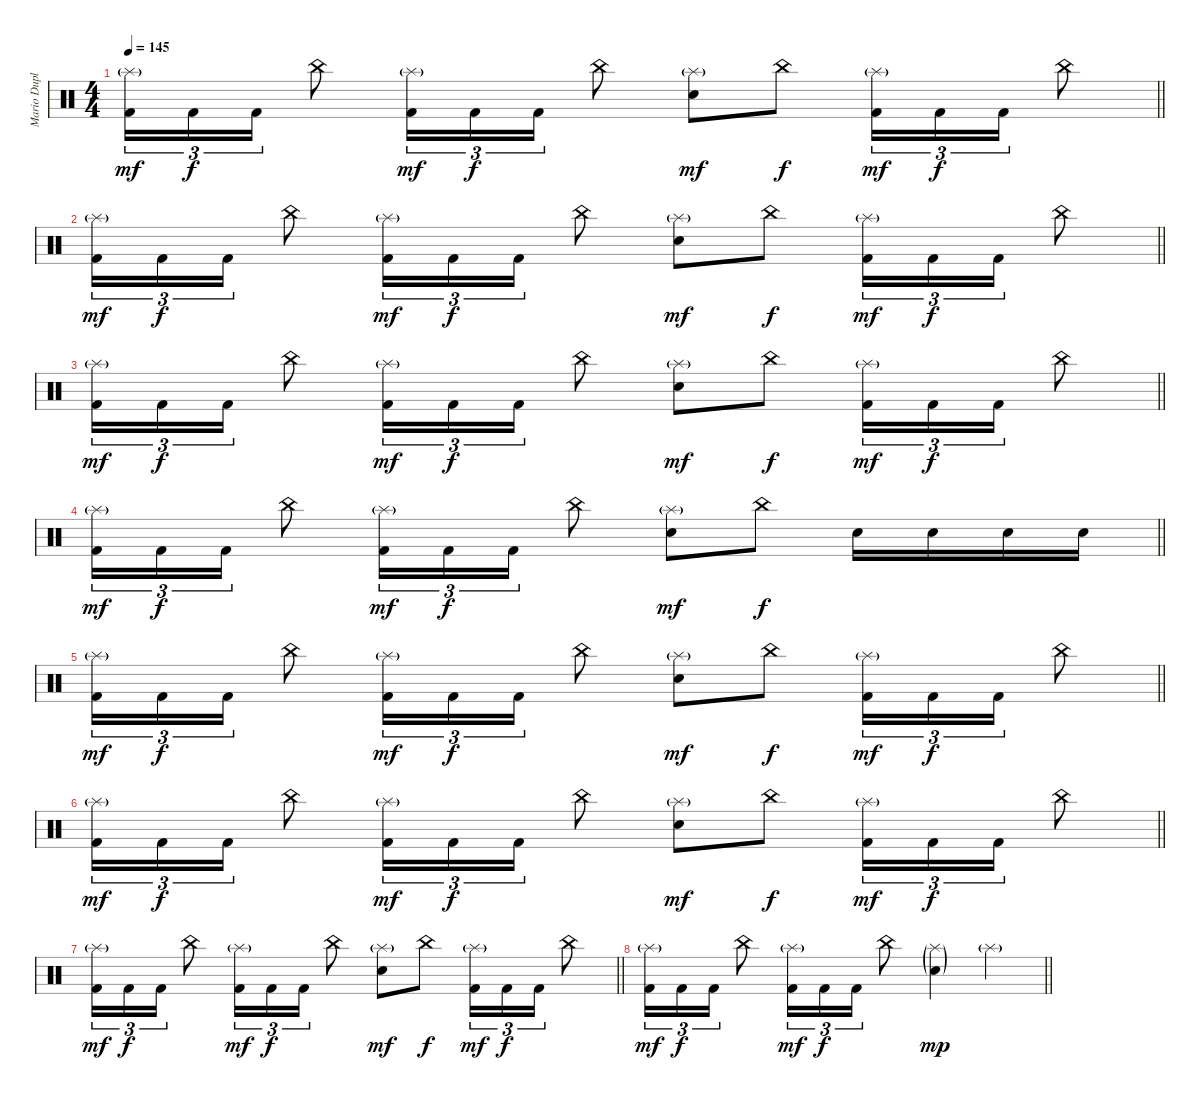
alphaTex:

\track ("Mario Duplantier" "Mario Dupl") {instrument percussion}
\staff {score}
\articulation defaults
\ts (4 4)
\tempo 145
\clef neutral
\barLineRight lightlight
\ks c
("Splash (hit)"{g} "Kick (hit) 2").16{tu (3 2) dy mf volume 7} "Kick (hit) 2".16{tu (3 2) dy f} "Kick (hit) 2".16{tu (3 2)} "China (hit)".8 ("Splash (hit)"{g} "Kick (hit) 2").16{tu (3 2) dy mf} "Kick (hit) 2".16{tu (3 2) dy f} "Kick (hit) 2".16{tu (3 2)} "China (hit)".8 ("Splash (hit)"{g} "Electric Snare (hit)").8{dy mf} "China (hit)".8{dy f} ("Splash (hit)"{g} "Kick (hit) 2").16{tu (3 2) dy mf} "Kick (hit) 2".16{tu (3 2) dy f} "Kick (hit) 2".16{tu (3 2)} "China (hit)".8 |
\barLineRight lightlight
("Splash (hit)"{g} "Kick (hit) 2").16{tu (3 2) dy mf} "Kick (hit) 2".16{tu (3 2) dy f} "Kick (hit) 2".16{tu (3 2)} "China (hit)".8 ("Splash (hit)"{g} "Kick (hit) 2").16{tu (3 2) dy mf} "Kick (hit) 2".16{tu (3 2) dy f} "Kick (hit) 2".16{tu (3 2)} "China (hit)".8 ("Splash (hit)"{g} "Electric Snare (hit)").8{dy mf} "China (hit)".8{dy f} ("Splash (hit)"{g} "Kick (hit) 2").16{tu (3 2) dy mf} "Kick (hit) 2".16{tu (3 2) dy f} "Kick (hit) 2".16{tu (3 2)} "China (hit)".8 |
\barLineRight lightlight
("Splash (hit)"{g} "Kick (hit) 2").16{tu (3 2) dy mf} "Kick (hit) 2".16{tu (3 2) dy f} "Kick (hit) 2".16{tu (3 2)} "China (hit)".8 ("Splash (hit)"{g} "Kick (hit) 2").16{tu (3 2) dy mf} "Kick (hit) 2".16{tu (3 2) dy f} "Kick (hit) 2".16{tu (3 2)} "China (hit)".8 ("Splash (hit)"{g} "Electric Snare (hit)").8{dy mf} "China (hit)".8{dy f} ("Splash (hit)"{g} "Kick (hit) 2").16{tu (3 2) dy mf} "Kick (hit) 2".16{tu (3 2) dy f} "Kick (hit) 2".16{tu (3 2)} "China (hit)".8 |
\barLineRight lightlight
("Splash (hit)"{g} "Kick (hit) 2").16{tu (3 2) dy mf} "Kick (hit) 2".16{tu (3 2) dy f} "Kick (hit) 2".16{tu (3 2)} "China (hit)".8 ("Splash (hit)"{g} "Kick (hit) 2").16{tu (3 2) dy mf} "Kick (hit) 2".16{tu (3 2) dy f} "Kick (hit) 2".16{tu (3 2)} "China (hit)".8 ("Splash (hit)"{g} "Electric Snare (hit)").8{dy mf} "China (hit)".8{dy f} "Electric Snare (hit)".16 "Electric Snare (hit)".16 "Electric Snare (hit)".16 "Electric Snare (hit)".16 |
\barLineRight lightlight
("Splash (hit)"{g} "Kick (hit) 2").16{tu (3 2) dy mf volume 6} "Kick (hit) 2".16{tu (3 2) dy f} "Kick (hit) 2".16{tu (3 2)} "China (hit)".8 ("Splash (hit)"{g} "Kick (hit) 2").16{tu (3 2) dy mf} "Kick (hit) 2".16{tu (3 2) dy f} "Kick (hit) 2".16{tu (3 2)} "China (hit)".8 ("Splash (hit)"{g} "Electric Snare (hit)").8{dy mf} "China (hit)".8{dy f} ("Splash (hit)"{g} "Kick (hit) 2").16{tu (3 2) dy mf} "Kick (hit) 2".16{tu (3 2) dy f} "Kick (hit) 2".16{tu (3 2)} "China (hit)".8 |
\barLineRight lightlight
("Splash (hit)"{g} "Kick (hit) 2").16{tu (3 2) dy mf} "Kick (hit) 2".16{tu (3 2) dy f} "Kick (hit) 2".16{tu (3 2)} "China (hit)".8 ("Splash (hit)"{g} "Kick (hit) 2").16{tu (3 2) dy mf} "Kick (hit) 2".16{tu (3 2) dy f} "Kick (hit) 2".16{tu (3 2)} "China (hit)".8 ("Splash (hit)"{g} "Electric Snare (hit)").8{dy mf} "China (hit)".8{dy f} ("Splash (hit)"{g} "Kick (hit) 2").16{tu (3 2) dy mf} "Kick (hit) 2".16{tu (3 2) dy f} "Kick (hit) 2".16{tu (3 2)} "China (hit)".8 |
\barLineRight lightlight
("Splash (hit)"{g} "Kick (hit) 2").16{tu (3 2) dy mf} "Kick (hit) 2".16{tu (3 2) dy f} "Kick (hit) 2".16{tu (3 2)} "China (hit)".8 ("Splash (hit)"{g} "Kick (hit) 2").16{tu (3 2) dy mf} "Kick (hit) 2".16{tu (3 2) dy f} "Kick (hit) 2".16{tu (3 2)} "China (hit)".8 ("Splash (hit)"{g} "Electric Snare (hit)").8{dy mf} "China (hit)".8{dy f} ("Splash (hit)"{g} "Kick (hit) 2").16{tu (3 2) dy mf} "Kick (hit) 2".16{tu (3 2) dy f} "Kick (hit) 2".16{tu (3 2)} "China (hit)".8 |
\barLineRight lightlight
("Splash (hit)"{g} "Kick (hit) 2").16{tu (3 2) dy mf} "Kick (hit) 2".16{tu (3 2) dy f} "Kick (hit) 2".16{tu (3 2)} "China (hit)".8 ("Splash (hit)"{g} "Kick (hit) 2").16{tu (3 2) dy mf} "Kick (hit) 2".16{tu (3 2) dy f} "Kick (hit) 2".16{tu (3 2)} "China (hit)".8 ("Splash (hit)"{g} "Electric Snare (hit)"{g}).4{dy mp} "Splash (hit)"{g}.4
